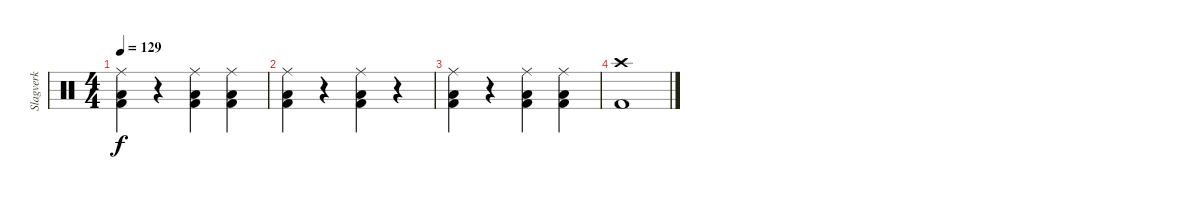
\track ("Slagverk" "Slagverk") {instrument percussion}
\staff {score}
\articulation defaults
\ts (4 4)
\tempo 129
\clef neutral
\ks c
("Ride (middle)" "Low Tom (hit)" "Kick (hit) 2").4{dy f} r.4 ("Ride (middle)" "Low Tom (hit)" "Kick (hit) 2").4 ("Ride (middle)" "Low Tom (hit)" "Kick (hit) 2").4 |
("Ride (middle)" "Low Tom (hit)" "Kick (hit) 2").4 r.4 ("Ride (middle)" "Low Tom (hit)" "Kick (hit) 2").4 r.4 |
("Ride (middle)" "Low Tom (hit)" "Kick (hit) 2").4 r.4 ("Ride (middle)" "Low Tom (hit)" "Kick (hit) 2").4 ("Ride (middle)" "Low Tom (hit)" "Kick (hit) 2").4 |
("Crash high (hit)" "Kick (hit) 2").1
